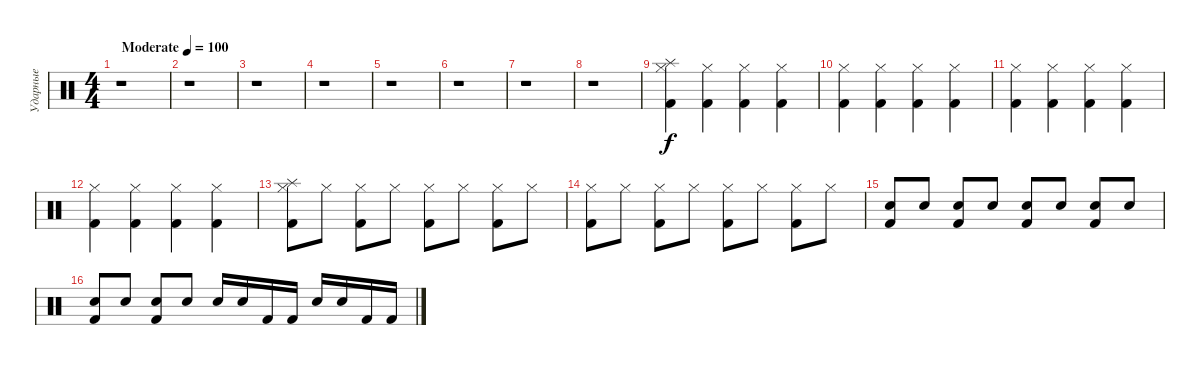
\track ("Ударные" "Ударные") {instrument percussion}
\staff {score}
\articulation defaults
\ts (4 4)
\tempo (100 "Moderate")
\clef neutral
\ks c
r.1{dy f} |
r.1 |
r.1 |
r.1 |
r.1 |
r.1 |
r.1 |
r.1 |
("Hi-Hat (closed)" "Splash (hit)" "Kick (hit) 2").4 ("Hi-Hat (closed)" "Kick (hit) 2").4 ("Hi-Hat (closed)" "Kick (hit) 2").4 ("Hi-Hat (closed)" "Kick (hit) 2").4 |
("Hi-Hat (closed)" "Kick (hit) 2").4 ("Hi-Hat (closed)" "Kick (hit) 2").4 ("Hi-Hat (closed)" "Kick (hit) 2").4 ("Hi-Hat (closed)" "Kick (hit) 2").4 |
("Hi-Hat (closed)" "Kick (hit) 2").4 ("Hi-Hat (closed)" "Kick (hit) 2").4 ("Hi-Hat (closed)" "Kick (hit) 2").4 ("Hi-Hat (closed)" "Kick (hit) 2").4 |
("Hi-Hat (closed)" "Kick (hit) 2").4 ("Hi-Hat (closed)" "Kick (hit) 2").4 ("Hi-Hat (closed)" "Kick (hit) 2").4 ("Hi-Hat (closed)" "Kick (hit) 2").4 |
("Hi-Hat (closed)" "Splash (hit)" "Kick (hit) 2").8 "Hi-Hat (closed)".8 ("Hi-Hat (closed)" "Kick (hit) 2").8 "Hi-Hat (closed)".8 ("Hi-Hat (closed)" "Kick (hit) 2").8 "Hi-Hat (closed)".8 ("Hi-Hat (closed)" "Kick (hit) 2").8 "Hi-Hat (closed)".8 |
("Hi-Hat (closed)" "Kick (hit) 2").8 "Hi-Hat (closed)".8 ("Hi-Hat (closed)" "Kick (hit) 2").8 "Hi-Hat (closed)".8 ("Hi-Hat (closed)" "Kick (hit) 2").8 "Hi-Hat (closed)".8 ("Hi-Hat (closed)" "Kick (hit) 2").8 "Hi-Hat (closed)".8 |
("Electric Snare (hit)" "Kick (hit) 2").8 "Electric Snare (hit)".8 ("Electric Snare (hit)" "Kick (hit) 2").8 "Electric Snare (hit)".8 ("Electric Snare (hit)" "Kick (hit) 2").8 "Electric Snare (hit)".8 ("Electric Snare (hit)" "Kick (hit) 2").8 "Electric Snare (hit)".8 |
("Electric Snare (hit)" "Kick (hit) 2").8 "Electric Snare (hit)".8 ("Electric Snare (hit)" "Kick (hit) 2").8 "Electric Snare (hit)".8 "Electric Snare (hit)".16 "Electric Snare (hit)".16 "Kick (hit) 2".16 "Kick (hit) 2".16 "Electric Snare (hit)".16 "Electric Snare (hit)".16 "Kick (hit) 2".16 "Kick (hit) 2".16
